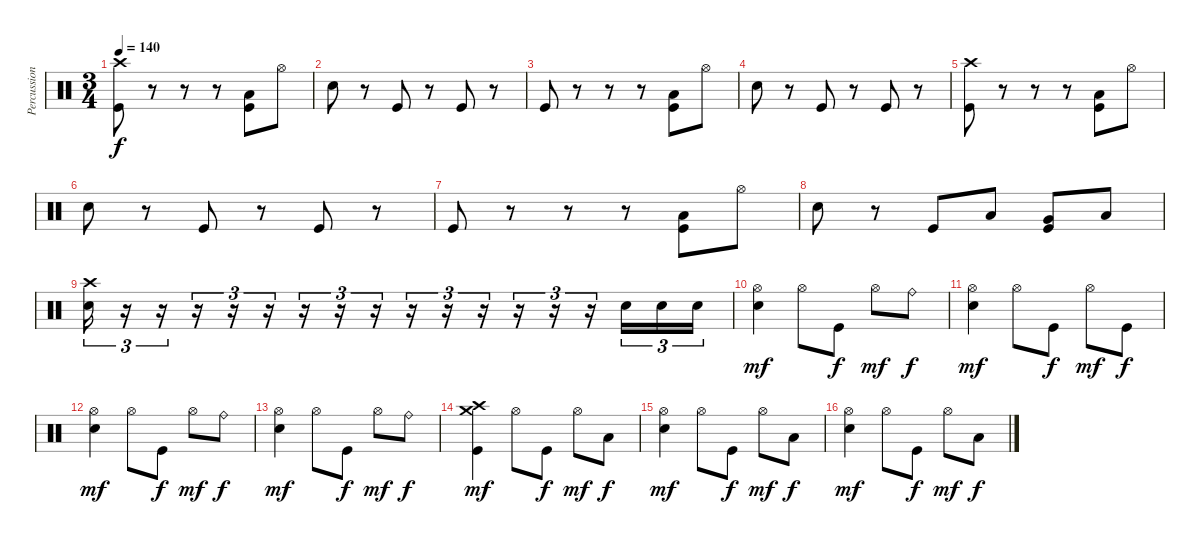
\track ("Percussion" "Percussion") {instrument percussion}
\staff {score}
\articulation defaults
\ts (3 4)
\tempo 140
\clef neutral
\ks c
("Crash high (hit)" "Kick (hit)").8{dy f} r.8 r.8 r.8 ("Low Floor Tom (hit)" "Kick (hit)").8 "Hi-Hat (open)".8 |
"Electric Snare (hit)".8 r.8 "Kick (hit)".8 r.8 "Kick (hit)".8 r.8 |
"Kick (hit)".8 r.8 r.8 r.8 ("Low Floor Tom (hit)" "Kick (hit)").8 "Hi-Hat (open)".8 |
"Electric Snare (hit)".8 r.8 "Kick (hit)".8 r.8 "Kick (hit)".8 r.8 |
("Crash high (hit)" "Kick (hit)").8 r.8 r.8 r.8 ("Low Floor Tom (hit)" "Kick (hit)").8 "Hi-Hat (open)".8 |
"Electric Snare (hit)".8 r.8 "Kick (hit)".8 r.8 "Kick (hit)".8 r.8 |
"Kick (hit)".8 r.8 r.8 r.8 ("Low Floor Tom (hit)" "Kick (hit)").8 "Hi-Hat (open)".8 |
"Electric Snare (hit)".8 r.8 "Kick (hit)".8 "Low Tom (hit)".8 ("Very Low Tom (hit)" "Kick (hit)").8 "Low Floor Tom (hit)".8 |
("Crash high (hit)" "Electric Snare (hit)").16{tu (3 2)} r.16{tu (3 2)} r.16{tu (3 2)} r.16{tu (3 2)} r.16{tu (3 2)} r.16{tu (3 2)} r.16{tu (3 2)} r.16{tu (3 2)} r.16{tu (3 2)} r.16{tu (3 2)} r.16{tu (3 2)} r.16{tu (3 2)} r.16{tu (3 2)} r.16{tu (3 2)} r.16{tu (3 2)} "Electric Snare (hit)".16{tu (3 2)} "Electric Snare (hit)".16{tu (3 2)} "Electric Snare (hit)".16{tu (3 2)} |
("Electric Snare (hit)" "Hi-Hat (open)").4{dy mf} "Hi-Hat (open)".8 "Kick (hit)".8{dy f} "Hi-Hat (open)".8{dy mf} "Ride (bell)".8{dy f} |
("Electric Snare (hit)" "Hi-Hat (open)").4{dy mf} "Hi-Hat (open)".8 "Kick (hit)".8{dy f} "Hi-Hat (open)".8{dy mf} "Kick (hit)".8{dy f} |
("Electric Snare (hit)" "Hi-Hat (open)").4{dy mf} "Hi-Hat (open)".8 "Kick (hit)".8{dy f} "Hi-Hat (open)".8{dy mf} "Ride (bell)".8{dy f} |
("Electric Snare (hit)" "Hi-Hat (open)").4{dy mf} "Hi-Hat (open)".8 "Kick (hit)".8{dy f} "Hi-Hat (open)".8{dy mf} "Ride (bell)".8{dy f} |
("Kick (hit)" "Crash high (hit)" "Crash medium (hit)").4{dy mf} "Hi-Hat (open)".8 "Kick (hit)".8{dy f} "Hi-Hat (open)".8{dy mf} "Low Floor Tom (hit)".8{dy f} |
("Electric Snare (hit)" "Hi-Hat (open)").4{dy mf} "Hi-Hat (open)".8 "Kick (hit)".8{dy f} "Hi-Hat (open)".8{dy mf} "Low Floor Tom (hit)".8{dy f} |
("Electric Snare (hit)" "Hi-Hat (open)").4{dy mf} "Hi-Hat (open)".8 "Kick (hit)".8{dy f} "Hi-Hat (open)".8{dy mf} "Low Floor Tom (hit)".8{dy f}
